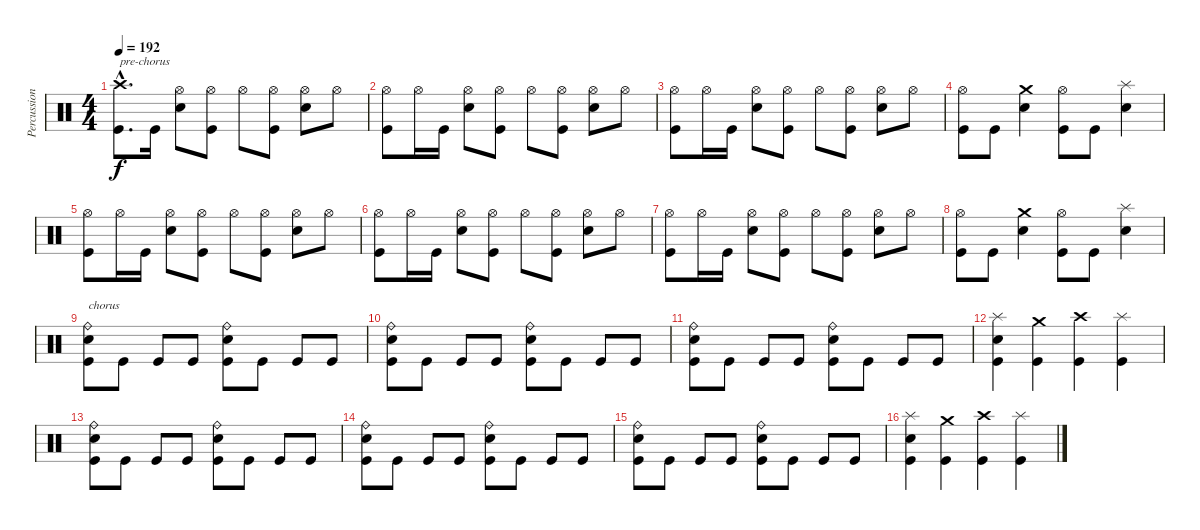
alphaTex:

\track ("Percussions" "Percussion") {instrument percussion}
\staff {score}
\articulation defaults
\ts (4 4)
\tempo 192
\clef neutral
\ks c
("Kick (hit)"{hac} "Crash high (hit)"{hac}).8{d txt "pre-chorus" dy f} "Kick (hit)".16 ("Electric Snare (hit)" "Hi-Hat (open)").8 ("Kick (hit)" "Hi-Hat (open)").8 "Hi-Hat (open)".8 ("Kick (hit)" "Hi-Hat (open)").8 ("Electric Snare (hit)" "Hi-Hat (open)").8 "Hi-Hat (open)".8 |
("Kick (hit)" "Hi-Hat (open)").8 "Hi-Hat (open)".16 "Kick (hit)".16 ("Electric Snare (hit)" "Hi-Hat (open)").8 ("Kick (hit)" "Hi-Hat (open)").8 "Hi-Hat (open)".8 ("Kick (hit)" "Hi-Hat (open)").8 ("Electric Snare (hit)" "Hi-Hat (open)").8 "Hi-Hat (open)".8 |
("Kick (hit)" "Hi-Hat (open)").8 "Hi-Hat (open)".16 "Kick (hit)".16 ("Electric Snare (hit)" "Hi-Hat (open)").8 ("Kick (hit)" "Hi-Hat (open)").8 "Hi-Hat (open)".8 ("Kick (hit)" "Hi-Hat (open)").8 ("Electric Snare (hit)" "Hi-Hat (open)").8 "Hi-Hat (open)".8 |
("Kick (hit)" "Hi-Hat (open)").8 "Kick (hit)".8 ("Electric Snare (hit)" "Crash medium (hit)").4 ("Kick (hit)" "Hi-Hat (open)").8 "Kick (hit)".8 ("Electric Snare (hit)" "Splash (hit)").4 |
("Kick (hit)" "Hi-Hat (open)").8 "Hi-Hat (open)".16 "Kick (hit)".16 ("Electric Snare (hit)" "Hi-Hat (open)").8 ("Kick (hit)" "Hi-Hat (open)").8 "Hi-Hat (open)".8 ("Kick (hit)" "Hi-Hat (open)").8 ("Electric Snare (hit)" "Hi-Hat (open)").8 "Hi-Hat (open)".8 |
("Kick (hit)" "Hi-Hat (open)").8 "Hi-Hat (open)".16 "Kick (hit)".16 ("Electric Snare (hit)" "Hi-Hat (open)").8 ("Kick (hit)" "Hi-Hat (open)").8 "Hi-Hat (open)".8 ("Kick (hit)" "Hi-Hat (open)").8 ("Electric Snare (hit)" "Hi-Hat (open)").8 "Hi-Hat (open)".8 |
("Kick (hit)" "Hi-Hat (open)").8 "Hi-Hat (open)".16 "Kick (hit)".16 ("Electric Snare (hit)" "Hi-Hat (open)").8 ("Kick (hit)" "Hi-Hat (open)").8 "Hi-Hat (open)".8 ("Kick (hit)" "Hi-Hat (open)").8 ("Electric Snare (hit)" "Hi-Hat (open)").8 "Hi-Hat (open)".8 |
("Kick (hit)" "Hi-Hat (open)").8 "Kick (hit)".8 ("Electric Snare (hit)" "Crash medium (hit)").4 ("Kick (hit)" "Hi-Hat (open)").8 "Kick (hit)".8 ("Electric Snare (hit)" "Splash (hit)").4 |
("Kick (hit)" "Electric Snare (hit)" "Ride (bell)").8{txt "chorus"} "Kick (hit)".8 "Kick (hit)".8 "Kick (hit)".8 ("Kick (hit)" "Electric Snare (hit)" "Ride (bell)").8 "Kick (hit)".8 "Kick (hit)".8 "Kick (hit)".8 |
("Kick (hit)" "Electric Snare (hit)" "Ride (bell)").8 "Kick (hit)".8 "Kick (hit)".8 "Kick (hit)".8 ("Kick (hit)" "Electric Snare (hit)" "Ride (bell)").8 "Kick (hit)".8 "Kick (hit)".8 "Kick (hit)".8 |
("Kick (hit)" "Electric Snare (hit)" "Ride (bell)").8 "Kick (hit)".8 "Kick (hit)".8 "Kick (hit)".8 ("Kick (hit)" "Electric Snare (hit)" "Ride (bell)").8 "Kick (hit)".8 "Kick (hit)".8 "Kick (hit)".8 |
("Kick (hit)" "Electric Snare (hit)" "Splash (hit)").4 ("Kick (hit)" "Crash medium (hit)").4 ("Kick (hit)" "Crash high (hit)").4 ("Kick (hit)" "Splash (hit)").4 |
("Kick (hit)" "Electric Snare (hit)" "Ride (bell)").8 "Kick (hit)".8 "Kick (hit)".8 "Kick (hit)".8 ("Kick (hit)" "Electric Snare (hit)" "Ride (bell)").8 "Kick (hit)".8 "Kick (hit)".8 "Kick (hit)".8 |
("Kick (hit)" "Electric Snare (hit)" "Ride (bell)").8 "Kick (hit)".8 "Kick (hit)".8 "Kick (hit)".8 ("Kick (hit)" "Electric Snare (hit)" "Ride (bell)").8 "Kick (hit)".8 "Kick (hit)".8 "Kick (hit)".8 |
("Kick (hit)" "Electric Snare (hit)" "Ride (bell)").8 "Kick (hit)".8 "Kick (hit)".8 "Kick (hit)".8 ("Kick (hit)" "Electric Snare (hit)" "Ride (bell)").8 "Kick (hit)".8 "Kick (hit)".8 "Kick (hit)".8 |
("Kick (hit)" "Electric Snare (hit)" "Splash (hit)").4 ("Kick (hit)" "Crash medium (hit)").4 ("Kick (hit)" "Crash high (hit)").4 ("Kick (hit)" "Splash (hit)").4
